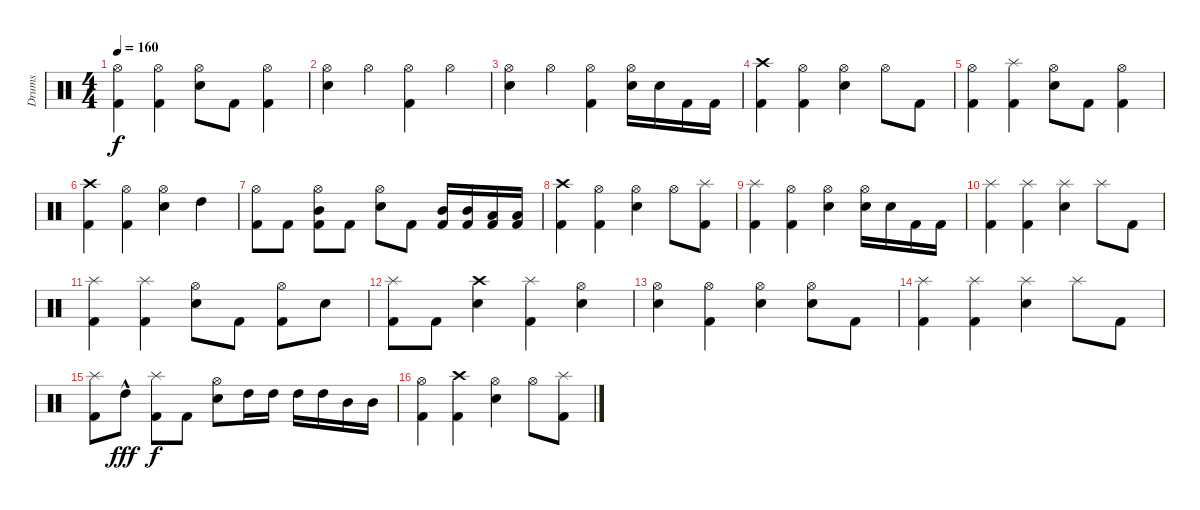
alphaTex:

\track ("Drums" "Drums") {instrument percussion}
\staff {score}
\articulation defaults
\ts (4 4)
\tempo 160
\clef neutral
\ks c
("Hi-Hat (open)" "Kick (hit) 2").4{dy f} ("Hi-Hat (open)" "Kick (hit) 2").4 ("Hi-Hat (open)" "Electric Snare (hit)").8 "Kick (hit) 2".8 ("Hi-Hat (open)" "Kick (hit) 2").4 |
("Hi-Hat (open)" "Electric Snare (hit)").4 "Hi-Hat (open)".4 ("Hi-Hat (open)" "Kick (hit) 2").4 "Hi-Hat (open)".4 |
("Hi-Hat (open)" "Electric Snare (hit)").4 "Hi-Hat (open)".4 ("Hi-Hat (open)" "Kick (hit) 2").4 ("Hi-Hat (open)" "Electric Snare (hit)").16 "Electric Snare (hit)".16 "Kick (hit) 2".16 "Kick (hit) 2".16 |
("Crash high (hit)" "Kick (hit) 2").4 ("Hi-Hat (open)" "Kick (hit) 2").4 ("Hi-Hat (open)" "Electric Snare (hit)").4 "Hi-Hat (open)".8 "Kick (hit) 2".8 |
("Hi-Hat (open)" "Kick (hit) 2").4 ("Splash (hit)" "Kick (hit) 2").4 ("Hi-Hat (open)" "Electric Snare (hit)").8 "Kick (hit) 2".8 ("Hi-Hat (open)" "Kick (hit) 2").4 |
("Crash high (hit)" "Kick (hit) 2").4 ("Hi-Hat (open)" "Kick (hit) 2").4 ("Hi-Hat (open)" "Electric Snare (hit)").4 "High Tom (hit)".4 |
("Hi-Hat (open)" "Kick (hit) 2").8 "Kick (hit) 2".8 ("Hi-Hat (open)" "Mid Tom (hit)" "Kick (hit) 2").8 "Kick (hit) 2".8 ("Hi-Hat (open)" "Electric Snare (hit)").8 "Kick (hit) 2".8 ("Mid Tom (hit)" "Kick (hit) 2").16 ("Mid Tom (hit)" "Kick (hit) 2").16 ("Low Tom (hit)" "Kick (hit) 2").16 ("Low Tom (hit)" "Kick (hit) 2").16 |
("Crash high (hit)" "Kick (hit) 2").4 ("Hi-Hat (open)" "Kick (hit) 2").4 ("Hi-Hat (open)" "Electric Snare (hit)").4 "Hi-Hat (open)".8 ("Splash (hit)" "Kick (hit) 2").8 |
("Splash (hit)" "Kick (hit) 2").4 ("Hi-Hat (open)" "Kick (hit) 2").4 ("Hi-Hat (open)" "Electric Snare (hit)").4 ("Hi-Hat (open)" "Electric Snare (hit)").16 "Electric Snare (hit)".16 "Kick (hit) 2".16 "Kick (hit) 2".16 |
("Splash (hit)" "Kick (hit) 2").4 ("Splash (hit)" "Kick (hit) 2").4 ("Splash (hit)" "Electric Snare (hit)").4 "Splash (hit)".8 "Kick (hit) 2".8 |
("Splash (hit)" "Kick (hit) 2").4 ("Splash (hit)" "Kick (hit) 2").4 ("Hi-Hat (open)" "Electric Snare (hit)").8 "Kick (hit) 2".8 ("Hi-Hat (open)" "Kick (hit) 2").8 "Electric Snare (hit)".8 |
("Splash (hit)" "Kick (hit) 2").8 "Kick (hit) 2".8 ("Crash high (hit)" "Electric Snare (hit)").4 ("Splash (hit)" "Kick (hit) 2").4 ("Hi-Hat (open)" "Electric Snare (hit)").4 |
("Hi-Hat (open)" "Electric Snare (hit)").4 ("Hi-Hat (open)" "Kick (hit) 2").4 ("Hi-Hat (open)" "Electric Snare (hit)").4 ("Hi-Hat (open)" "Electric Snare (hit)").8 "Kick (hit) 2".8 |
("Splash (hit)" "Kick (hit) 2").4 ("Splash (hit)" "Kick (hit) 2").4 ("Splash (hit)" "Electric Snare (hit)").4 "Splash (hit)".8 "Kick (hit) 2".8 |
("Splash (hit)" "Kick (hit) 2").8 "High Tom (hit)"{hac}.8{dy fff} ("Splash (hit)" "Kick (hit) 2").8{dy f} "Kick (hit) 2".8 ("Hi-Hat (open)" "Electric Snare (hit)").8 "High Tom (hit)".16 "High Tom (hit)".16 "High Tom (hit)".16 "High Tom (hit)".16 "Mid Tom (hit)".16 "Mid Tom (hit)".16 |
("Hi-Hat (open)" "Kick (hit) 2").4 ("Crash high (hit)" "Kick (hit) 2").4 ("Hi-Hat (open)" "Electric Snare (hit)").4 "Hi-Hat (open)".8 ("Splash (hit)" "Kick (hit) 2").8
